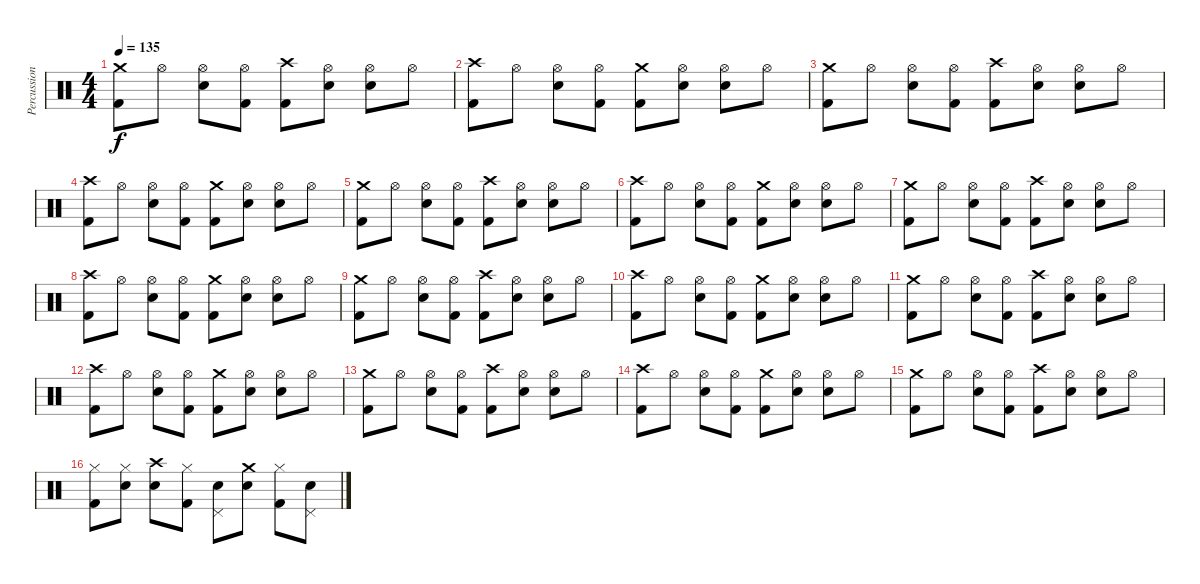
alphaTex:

\track ("Percussion" "Percussion") {instrument percussion}
\staff {score}
\articulation defaults
\ts (4 4)
\tempo 135
\clef neutral
\ks c
("Crash medium (hit)" "Kick (hit) 2").8{dy f} "Hi-Hat (open)".8 ("Hi-Hat (open)" "Snare (hit) 2").8 ("Hi-Hat (open)" "Kick (hit) 2").8 ("Crash high (hit)" "Kick (hit) 2").8 ("Hi-Hat (open)" "Snare (hit) 2").8 ("Hi-Hat (open)" "Snare (hit) 2").8 "Hi-Hat (open)".8 |
("Crash high (hit)" "Kick (hit) 2").8 "Hi-Hat (open)".8 ("Hi-Hat (open)" "Snare (hit) 2").8 ("Hi-Hat (open)" "Kick (hit) 2").8 ("Crash medium (hit)" "Kick (hit) 2").8 ("Hi-Hat (open)" "Snare (hit) 2").8 ("Hi-Hat (open)" "Snare (hit) 2").8 "Hi-Hat (open)".8 |
("Crash medium (hit)" "Kick (hit) 2").8 "Hi-Hat (open)".8 ("Hi-Hat (open)" "Snare (hit) 2").8 ("Hi-Hat (open)" "Kick (hit) 2").8 ("Crash high (hit)" "Kick (hit) 2").8 ("Hi-Hat (open)" "Snare (hit) 2").8 ("Hi-Hat (open)" "Snare (hit) 2").8 "Hi-Hat (open)".8 |
("Crash high (hit)" "Kick (hit) 2").8 "Hi-Hat (open)".8 ("Hi-Hat (open)" "Snare (hit) 2").8 ("Hi-Hat (open)" "Kick (hit) 2").8 ("Crash medium (hit)" "Kick (hit) 2").8 ("Hi-Hat (open)" "Snare (hit) 2").8 ("Hi-Hat (open)" "Snare (hit) 2").8 "Hi-Hat (open)".8 |
("Crash medium (hit)" "Kick (hit) 2").8 "Hi-Hat (open)".8 ("Hi-Hat (open)" "Snare (hit) 2").8 ("Hi-Hat (open)" "Kick (hit) 2").8 ("Crash high (hit)" "Kick (hit) 2").8 ("Hi-Hat (open)" "Snare (hit) 2").8 ("Hi-Hat (open)" "Snare (hit) 2").8 "Hi-Hat (open)".8 |
("Crash high (hit)" "Kick (hit) 2").8 "Hi-Hat (open)".8 ("Hi-Hat (open)" "Snare (hit) 2").8 ("Hi-Hat (open)" "Kick (hit) 2").8 ("Crash medium (hit)" "Kick (hit) 2").8 ("Hi-Hat (open)" "Snare (hit) 2").8 ("Hi-Hat (open)" "Snare (hit) 2").8 "Hi-Hat (open)".8 |
("Crash medium (hit)" "Kick (hit) 2").8 "Hi-Hat (open)".8 ("Hi-Hat (open)" "Snare (hit) 2").8 ("Hi-Hat (open)" "Kick (hit) 2").8 ("Crash high (hit)" "Kick (hit) 2").8 ("Hi-Hat (open)" "Snare (hit) 2").8 ("Hi-Hat (open)" "Snare (hit) 2").8 "Hi-Hat (open)".8 |
("Crash high (hit)" "Kick (hit) 2").8 "Hi-Hat (open)".8 ("Hi-Hat (open)" "Snare (hit) 2").8 ("Hi-Hat (open)" "Kick (hit) 2").8 ("Crash medium (hit)" "Kick (hit) 2").8 ("Hi-Hat (open)" "Snare (hit) 2").8 ("Hi-Hat (open)" "Snare (hit) 2").8 "Hi-Hat (open)".8 |
("Crash medium (hit)" "Kick (hit) 2").8 "Hi-Hat (open)".8 ("Hi-Hat (open)" "Snare (hit) 2").8 ("Hi-Hat (open)" "Kick (hit) 2").8 ("Crash high (hit)" "Kick (hit) 2").8 ("Hi-Hat (open)" "Snare (hit) 2").8 ("Hi-Hat (open)" "Snare (hit) 2").8 "Hi-Hat (open)".8 |
("Crash high (hit)" "Kick (hit) 2").8 "Hi-Hat (open)".8 ("Hi-Hat (open)" "Snare (hit) 2").8 ("Hi-Hat (open)" "Kick (hit) 2").8 ("Crash medium (hit)" "Kick (hit) 2").8 ("Hi-Hat (open)" "Snare (hit) 2").8 ("Hi-Hat (open)" "Snare (hit) 2").8 "Hi-Hat (open)".8 |
("Crash medium (hit)" "Kick (hit) 2").8 "Hi-Hat (open)".8 ("Hi-Hat (open)" "Snare (hit) 2").8 ("Hi-Hat (open)" "Kick (hit) 2").8 ("Crash high (hit)" "Kick (hit) 2").8 ("Hi-Hat (open)" "Snare (hit) 2").8 ("Hi-Hat (open)" "Snare (hit) 2").8 "Hi-Hat (open)".8 |
("Crash high (hit)" "Kick (hit) 2").8 "Hi-Hat (open)".8 ("Hi-Hat (open)" "Snare (hit) 2").8 ("Hi-Hat (open)" "Kick (hit) 2").8 ("Crash medium (hit)" "Kick (hit) 2").8 ("Hi-Hat (open)" "Snare (hit) 2").8 ("Hi-Hat (open)" "Snare (hit) 2").8 "Hi-Hat (open)".8 |
("Crash medium (hit)" "Kick (hit) 2").8 "Hi-Hat (open)".8 ("Hi-Hat (open)" "Snare (hit) 2").8 ("Hi-Hat (open)" "Kick (hit) 2").8 ("Crash high (hit)" "Kick (hit) 2").8 ("Hi-Hat (open)" "Snare (hit) 2").8 ("Hi-Hat (open)" "Snare (hit) 2").8 "Hi-Hat (open)".8 |
("Crash high (hit)" "Kick (hit) 2").8 "Hi-Hat (open)".8 ("Hi-Hat (open)" "Snare (hit) 2").8 ("Hi-Hat (open)" "Kick (hit) 2").8 ("Crash medium (hit)" "Kick (hit) 2").8 ("Hi-Hat (open)" "Snare (hit) 2").8 ("Hi-Hat (open)" "Snare (hit) 2").8 "Hi-Hat (open)".8 |
("Crash medium (hit)" "Kick (hit) 2").8 "Hi-Hat (open)".8 ("Hi-Hat (open)" "Snare (hit) 2").8 ("Hi-Hat (open)" "Kick (hit) 2").8 ("Crash high (hit)" "Kick (hit) 2").8 ("Hi-Hat (open)" "Snare (hit) 2").8 ("Hi-Hat (open)" "Snare (hit) 2").8 "Hi-Hat (open)".8 |
("Hi-Hat (closed)" "Kick (hit) 2").8 ("Hi-Hat (closed)" "Snare (hit) 2").8 ("Crash high (hit)" "Snare (hit) 2").8 ("Hi-Hat (closed)" "Kick (hit) 2").8 ("Pedal Hi-Hat (hit)" "Snare (hit) 2").8 ("Crash medium (hit)" "Snare (hit) 2").8 ("Hi-Hat (closed)" "Kick (hit) 2").8 ("Pedal Hi-Hat (hit)" "Snare (hit) 2").8
